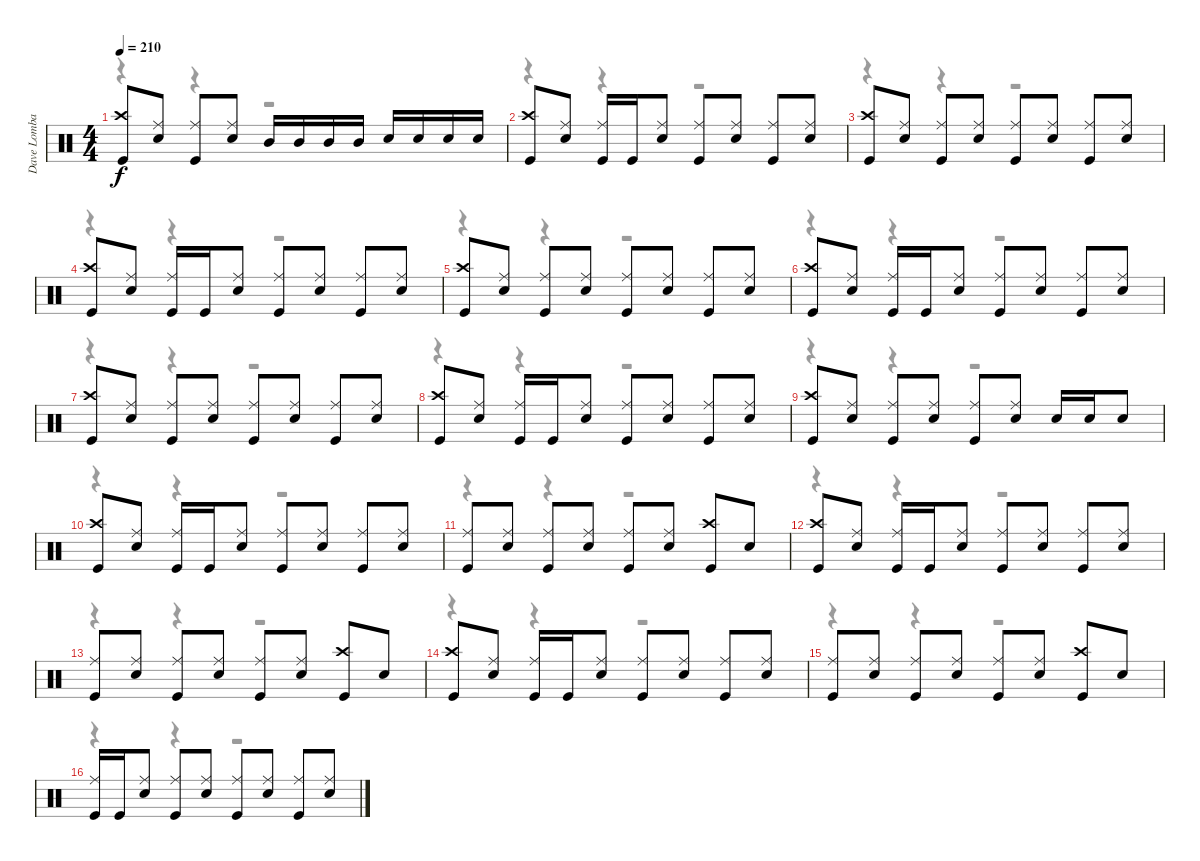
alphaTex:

\track ("Dave Lombardo" "Dave Lomba") {instrument percussion}
\staff {score}
\articulation defaults
\voice
\ts (4 4)
\tempo 210
\clef neutral
\ks c
("Crash high (hit)" "Kick (hit)").8{dy f} ("Ride (middle)" "Snare (hit) 2").8 ("Ride (middle)" "Kick (hit)").8 ("Ride (middle)" "Snare (hit) 2").8 "Mid Tom (hit)".16 "Mid Tom (hit)".16 "Mid Tom (hit)".16 "Mid Tom (hit)".16 "Snare (hit) 2".16 "Snare (hit) 2".16 "Snare (hit) 2".16 "Snare (hit) 2".16 |
("Crash high (hit)" "Kick (hit)").8 ("Ride (middle)" "Snare (hit) 2").8 ("Ride (middle)" "Kick (hit)").16 "Kick (hit)".16 ("Ride (middle)" "Snare (hit) 2").8 ("Ride (middle)" "Kick (hit)").8 ("Ride (middle)" "Snare (hit) 2").8 ("Ride (middle)" "Kick (hit)").8 ("Ride (middle)" "Snare (hit) 2").8 |
("Crash high (hit)" "Kick (hit)").8 ("Ride (middle)" "Snare (hit) 2").8 ("Ride (middle)" "Kick (hit)").8 ("Ride (middle)" "Snare (hit) 2").8 ("Ride (middle)" "Kick (hit)").8 ("Ride (middle)" "Snare (hit) 2").8 ("Ride (middle)" "Kick (hit)").8 ("Ride (middle)" "Snare (hit) 2").8 |
("Crash high (hit)" "Kick (hit)").8 ("Ride (middle)" "Snare (hit) 2").8 ("Ride (middle)" "Kick (hit)").16 "Kick (hit)".16 ("Ride (middle)" "Snare (hit) 2").8 ("Ride (middle)" "Kick (hit)").8 ("Ride (middle)" "Snare (hit) 2").8 ("Ride (middle)" "Kick (hit)").8 ("Ride (middle)" "Snare (hit) 2").8 |
("Crash high (hit)" "Kick (hit)").8 ("Ride (middle)" "Snare (hit) 2").8 ("Ride (middle)" "Kick (hit)").8 ("Ride (middle)" "Snare (hit) 2").8 ("Ride (middle)" "Kick (hit)").8 ("Ride (middle)" "Snare (hit) 2").8 ("Ride (middle)" "Kick (hit)").8 ("Ride (middle)" "Snare (hit) 2").8 |
("Crash high (hit)" "Kick (hit)").8 ("Ride (middle)" "Snare (hit) 2").8 ("Ride (middle)" "Kick (hit)").16 "Kick (hit)".16 ("Ride (middle)" "Snare (hit) 2").8 ("Ride (middle)" "Kick (hit)").8 ("Ride (middle)" "Snare (hit) 2").8 ("Ride (middle)" "Kick (hit)").8 ("Ride (middle)" "Snare (hit) 2").8 |
("Crash high (hit)" "Kick (hit)").8 ("Ride (middle)" "Snare (hit) 2").8 ("Ride (middle)" "Kick (hit)").8 ("Ride (middle)" "Snare (hit) 2").8 ("Ride (middle)" "Kick (hit)").8 ("Ride (middle)" "Snare (hit) 2").8 ("Ride (middle)" "Kick (hit)").8 ("Ride (middle)" "Snare (hit) 2").8 |
("Crash high (hit)" "Kick (hit)").8 ("Ride (middle)" "Snare (hit) 2").8 ("Ride (middle)" "Kick (hit)").16 "Kick (hit)".16 ("Ride (middle)" "Snare (hit) 2").8 ("Ride (middle)" "Kick (hit)").8 ("Ride (middle)" "Snare (hit) 2").8 ("Ride (middle)" "Kick (hit)").8 ("Ride (middle)" "Snare (hit) 2").8 |
("Crash high (hit)" "Kick (hit)").8 ("Ride (middle)" "Snare (hit) 2").8 ("Ride (middle)" "Kick (hit)").8 ("Ride (middle)" "Snare (hit) 2").8 ("Ride (middle)" "Kick (hit)").8 ("Ride (middle)" "Snare (hit) 2").8 "Snare (hit) 2".16 "Snare (hit) 2".16 "Snare (hit) 2".8 |
("Crash high (hit)" "Kick (hit)").8 ("Ride (middle)" "Snare (hit) 2").8 ("Ride (middle)" "Kick (hit)").16 "Kick (hit)".16 ("Ride (middle)" "Snare (hit) 2").8 ("Ride (middle)" "Kick (hit)").8 ("Ride (middle)" "Snare (hit) 2").8 ("Ride (middle)" "Kick (hit)").8 ("Ride (middle)" "Snare (hit) 2").8 |
("Ride (middle)" "Kick (hit)").8 ("Ride (middle)" "Snare (hit) 2").8 ("Ride (middle)" "Kick (hit)").8 ("Ride (middle)" "Snare (hit) 2").8 ("Ride (middle)" "Kick (hit)").8 ("Ride (middle)" "Snare (hit) 2").8 ("Crash high (hit)" "Kick (hit)").8 "Snare (hit) 2".8 |
("Crash high (hit)" "Kick (hit)").8 ("Ride (middle)" "Snare (hit) 2").8 ("Ride (middle)" "Kick (hit)").16 "Kick (hit)".16 ("Ride (middle)" "Snare (hit) 2").8 ("Ride (middle)" "Kick (hit)").8 ("Ride (middle)" "Snare (hit) 2").8 ("Ride (middle)" "Kick (hit)").8 ("Ride (middle)" "Snare (hit) 2").8 |
("Ride (middle)" "Kick (hit)").8 ("Ride (middle)" "Snare (hit) 2").8 ("Ride (middle)" "Kick (hit)").8 ("Ride (middle)" "Snare (hit) 2").8 ("Ride (middle)" "Kick (hit)").8 ("Ride (middle)" "Snare (hit) 2").8 ("Crash high (hit)" "Kick (hit)").8 "Snare (hit) 2".8 |
("Crash high (hit)" "Kick (hit)").8 ("Ride (middle)" "Snare (hit) 2").8 ("Ride (middle)" "Kick (hit)").16 "Kick (hit)".16 ("Ride (middle)" "Snare (hit) 2").8 ("Ride (middle)" "Kick (hit)").8 ("Ride (middle)" "Snare (hit) 2").8 ("Ride (middle)" "Kick (hit)").8 ("Ride (middle)" "Snare (hit) 2").8 |
("Ride (middle)" "Kick (hit)").8 ("Ride (middle)" "Snare (hit) 2").8 ("Ride (middle)" "Kick (hit)").8 ("Ride (middle)" "Snare (hit) 2").8 ("Ride (middle)" "Kick (hit)").8 ("Ride (middle)" "Snare (hit) 2").8 ("Crash high (hit)" "Kick (hit)").8 "Snare (hit) 2".8 |
("Ride (middle)" "Kick (hit)").16 "Kick (hit)".16 ("Ride (middle)" "Snare (hit) 2").8 ("Ride (middle)" "Kick (hit)").8 ("Ride (middle)" "Snare (hit) 2").8 ("Ride (middle)" "Kick (hit)").8 ("Ride (middle)" "Snare (hit) 2").8 ("Ride (middle)" "Kick (hit)").8 ("Ride (middle)" "Snare (hit) 2").8
\voice
\clef neutral
\ottava regular
\simile none
\ks c
r.4{dy f} r.4 r.2 |
r.4 r.4 r.2 |
r.4 r.4 r.2 |
r.4 r.4 r.2 |
r.4 r.4 r.2 |
r.4 r.4 r.2 |
r.4 r.4 r.2 |
r.4 r.4 r.2 |
r.4 r.4 r.2 |
r.4 r.4 r.2 |
r.4 r.4 r.2 |
r.4 r.4 r.2 |
r.4 r.4 r.2 |
r.4 r.4 r.2 |
r.4 r.4 r.2 |
r.4 r.4 r.2
